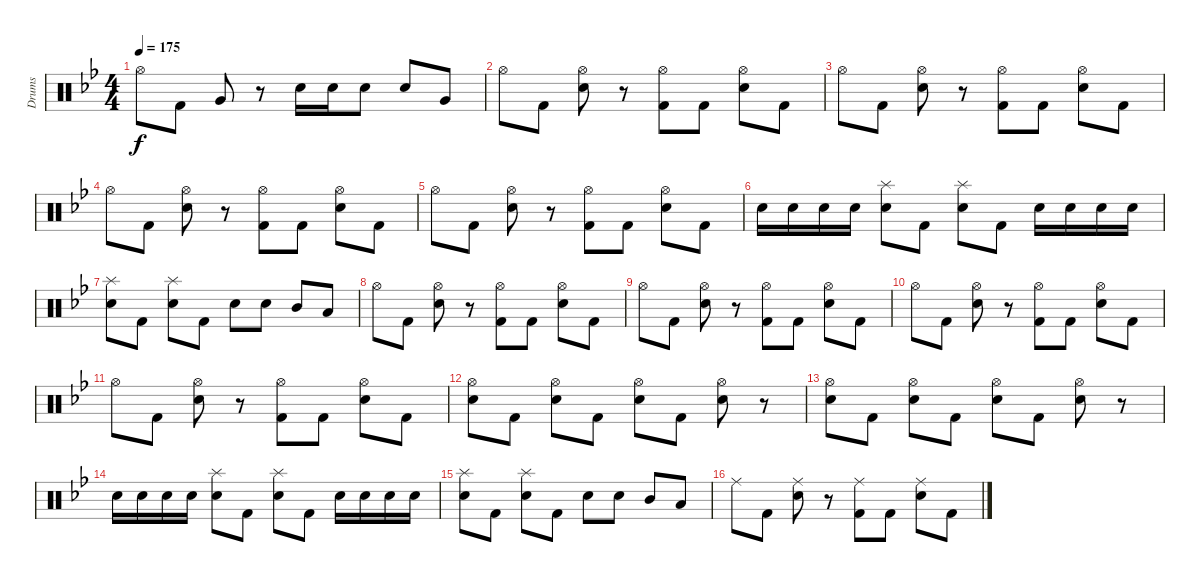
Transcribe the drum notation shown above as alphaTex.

\track ("Drums" "Drums") {instrument percussion}
\staff {score}
\articulation defaults
\ts (4 4)
\tempo 175
\clef neutral
\ks bb "Hi-Hat (open)".8{dy f} "Kick (hit) 2".8 "Very Low Tom (hit)".8
r.8 "Electric Snare (hit)".16 "Electric Snare (hit)".16 "Electric Snare (hit)".8 "Electric Snare (hit)".8 "Very Low Tom (hit)".8 |
"Hi-Hat (open)".8 "Kick (hit) 2".8 ("Hi-Hat (open)" "Electric Snare (hit)").8 r.8 ("Hi-Hat (open)" "Kick (hit) 2").8 "Kick (hit) 2".8 ("Hi-Hat (open)" "Electric Snare (hit)").8 "Kick (hit) 2".8 |
"Hi-Hat (open)".8 "Kick (hit) 2".8 ("Hi-Hat (open)" "Electric Snare (hit)").8 r.8 ("Hi-Hat (open)" "Kick (hit) 2").8 "Kick (hit) 2".8 ("Hi-Hat (open)" "Electric Snare (hit)").8 "Kick (hit) 2".8 |
"Hi-Hat (open)".8 "Kick (hit) 2".8 ("Hi-Hat (open)" "Electric Snare (hit)").8 r.8 ("Hi-Hat (open)" "Kick (hit) 2").8 "Kick (hit) 2".8 ("Hi-Hat (open)" "Electric Snare (hit)").8 "Kick (hit) 2".8 |
"Hi-Hat (open)".8 "Kick (hit) 2".8 ("Hi-Hat (open)" "Electric Snare (hit)").8 r.8 ("Hi-Hat (open)" "Kick (hit) 2").8 "Kick (hit) 2".8 ("Hi-Hat (open)" "Electric Snare (hit)").8 "Kick (hit) 2".8 |
"Electric Snare (hit)".16 "Electric Snare (hit)".16 "Electric Snare (hit)".16 "Electric Snare (hit)".16 ("Splash (hit)" "Electric Snare (hit)").8 "Kick (hit) 2".8 ("Splash (hit)" "Electric Snare (hit)").8 "Kick (hit) 2".8 "Electric Snare (hit)".16 "Electric Snare (hit)".16 "Electric Snare (hit)".16 "Electric Snare (hit)".16 |
("Splash (hit)" "Electric Snare (hit)").8 "Kick (hit) 2".8 ("Splash (hit)" "Electric Snare (hit)").8 "Kick (hit) 2".8 "Electric Snare (hit)".8 "Electric Snare (hit)".8 "Mid Tom (hit)".8 "Low Tom (hit)".8 |
"Hi-Hat (open)".8 "Kick (hit) 2".8 ("Hi-Hat (open)" "Electric Snare (hit)").8 r.8 ("Hi-Hat (open)" "Kick (hit) 2").8 "Kick (hit) 2".8 ("Hi-Hat (open)" "Electric Snare (hit)").8 "Kick (hit) 2".8 |
"Hi-Hat (open)".8 "Kick (hit) 2".8 ("Hi-Hat (open)" "Electric Snare (hit)").8 r.8 ("Hi-Hat (open)" "Kick (hit) 2").8 "Kick (hit) 2".8 ("Hi-Hat (open)" "Electric Snare (hit)").8 "Kick (hit) 2".8 |
"Hi-Hat (open)".8 "Kick (hit) 2".8 ("Hi-Hat (open)" "Electric Snare (hit)").8 r.8 ("Hi-Hat (open)" "Kick (hit) 2").8 "Kick (hit) 2".8 ("Hi-Hat (open)" "Electric Snare (hit)").8 "Kick (hit) 2".8 |
"Hi-Hat (open)".8 "Kick (hit) 2".8 ("Hi-Hat (open)" "Electric Snare (hit)").8 r.8 ("Hi-Hat (open)" "Kick (hit) 2").8 "Kick (hit) 2".8 ("Hi-Hat (open)" "Electric Snare (hit)").8 "Kick (hit) 2".8 |
("Hi-Hat (open)" "Electric Snare (hit)").8 "Kick (hit) 2".8 ("Hi-Hat (open)" "Electric Snare (hit)").8 "Kick (hit) 2".8 ("Hi-Hat (open)" "Electric Snare (hit)").8 "Kick (hit) 2".8 ("Hi-Hat (open)" "Electric Snare (hit)").8 r.8 |
("Hi-Hat (open)" "Electric Snare (hit)").8 "Kick (hit) 2".8 ("Hi-Hat (open)" "Electric Snare (hit)").8 "Kick (hit) 2".8 ("Hi-Hat (open)" "Electric Snare (hit)").8 "Kick (hit) 2".8 ("Hi-Hat (open)" "Electric Snare (hit)").8 r.8 |
"Electric Snare (hit)".16 "Electric Snare (hit)".16 "Electric Snare (hit)".16 "Electric Snare (hit)".16 ("Splash (hit)" "Electric Snare (hit)").8 "Kick (hit) 2".8 ("Splash (hit)" "Electric Snare (hit)").8 "Kick (hit) 2".8 "Electric Snare (hit)".16 "Electric Snare (hit)".16 "Electric Snare (hit)".16 "Electric Snare (hit)".16 |
("Splash (hit)" "Electric Snare (hit)").8 "Kick (hit) 2".8 ("Splash (hit)" "Electric Snare (hit)").8 "Kick (hit) 2".8 "Electric Snare (hit)".8 "Electric Snare (hit)".8 "Mid Tom (hit)".8 "Low Tom (hit)".8 |
"Ride (middle)".8 "Kick (hit) 2".8 ("Ride (middle)" "Electric Snare (hit)").8 r.8 ("Ride (middle)" "Kick (hit) 2").8 "Kick (hit) 2".8 ("Ride (middle)" "Electric Snare (hit)").8 "Kick (hit) 2".8
